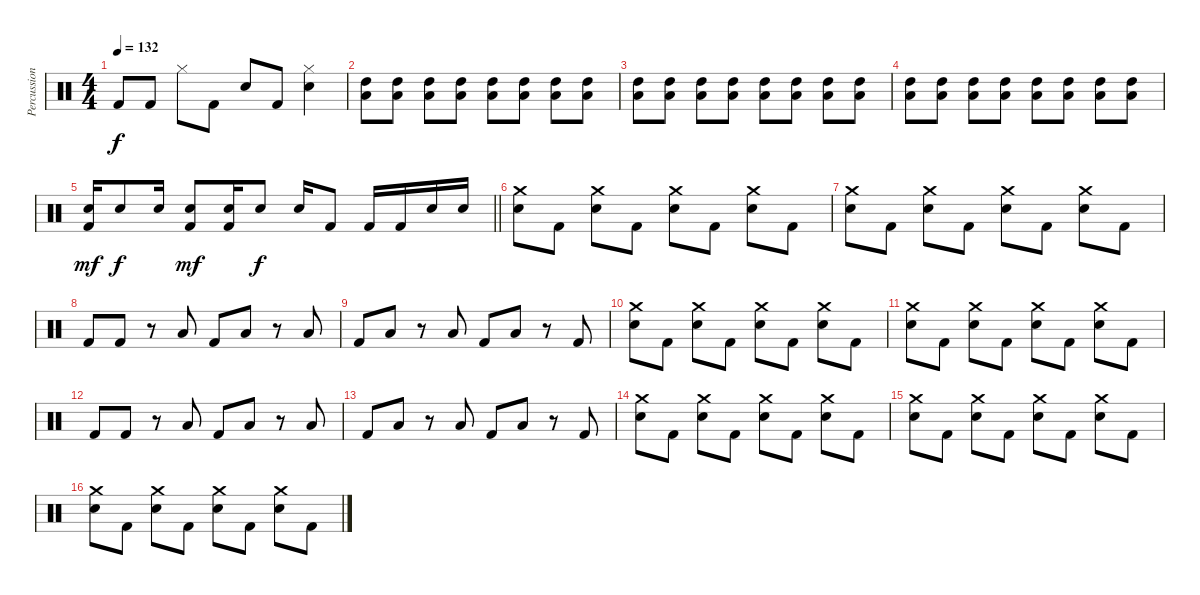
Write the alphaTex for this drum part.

\track ("Percussions" "Percussion") {instrument percussion}
\staff {score}
\articulation defaults
\ts (4 4)
\tempo 132
\clef neutral
\ks c "Kick (hit) 2".8{dy f} "Kick (hit) 2".8 "Hi-Hat (closed)".8 "Kick (hit) 2".8 "Electric Snare (hit)".8 "Kick (hit) 2".8
("Hi-Hat (closed)" "Electric Snare (hit)").4 |
("Low Tom (hit)" "High Tom (hit)").8{volume 0} ("Low Tom (hit)" "High Tom (hit)").8{volume 14} ("Low Tom (hit)" "High Tom (hit)").8 ("Low Tom (hit)" "High Tom (hit)").8 ("Low Tom (hit)" "High Tom (hit)").8 ("Low Tom (hit)" "High Tom (hit)").8 ("Low Tom (hit)" "High Tom (hit)").8 ("Low Tom (hit)" "High Tom (hit)").8 |
("Low Tom (hit)" "High Tom (hit)").8 ("Low Tom (hit)" "High Tom (hit)").8 ("Low Tom (hit)" "High Tom (hit)").8 ("Low Tom (hit)" "High Tom (hit)").8 ("Low Tom (hit)" "High Tom (hit)").8 ("Low Tom (hit)" "High Tom (hit)").8 ("Low Tom (hit)" "High Tom (hit)").8 ("Low Tom (hit)" "High Tom (hit)").8 |
("Low Tom (hit)" "High Tom (hit)").8 ("Low Tom (hit)" "High Tom (hit)").8 ("Low Tom (hit)" "High Tom (hit)").8 ("Low Tom (hit)" "High Tom (hit)").8 ("Low Tom (hit)" "High Tom (hit)").8 ("Low Tom (hit)" "High Tom (hit)").8 ("Low Tom (hit)" "High Tom (hit)").8 ("Low Tom (hit)" "High Tom (hit)").8 |
\barLineRight lightlight
("Kick (hit) 2" "Electric Snare (hit)").16{dy mf} "Electric Snare (hit)".8{dy f} "Electric Snare (hit)".16 ("Kick (hit) 2" "Electric Snare (hit)").8{dy mf} ("Kick (hit) 2" "Electric Snare (hit)").16 "Electric Snare (hit)".8{dy f} "Electric Snare (hit)".16 "Kick (hit) 2".8 "Kick (hit) 2".16 "Kick (hit) 2".16 "Electric Snare (hit)".16 "Electric Snare (hit)".16 |
("Electric Snare (hit)" "Crash medium (hit)").8 "Kick (hit) 2".8 ("Electric Snare (hit)" "Crash medium (hit)").8 "Kick (hit) 2".8 ("Electric Snare (hit)" "Crash medium (hit)").8 "Kick (hit) 2".8 ("Electric Snare (hit)" "Crash medium (hit)").8 "Kick (hit) 2".8 |
("Electric Snare (hit)" "Crash medium (hit)").8 "Kick (hit) 2".8 ("Electric Snare (hit)" "Crash medium (hit)").8 "Kick (hit) 2".8 ("Electric Snare (hit)" "Crash medium (hit)").8 "Kick (hit) 2".8 ("Electric Snare (hit)" "Crash medium (hit)").8 "Kick (hit) 2".8 |
"Kick (hit) 2".8 "Kick (hit) 2".8 r.8 "Low Floor Tom (hit)".8 "Kick (hit) 2".8 "Low Floor Tom (hit)".8 r.8 "Low Floor Tom (hit)".8 |
"Kick (hit) 2".8 "Low Floor Tom (hit)".8 r.8 "Low Floor Tom (hit)".8 "Kick (hit) 2".8 "Low Floor Tom (hit)".8 r.8 "Kick (hit) 2".8 |
("Electric Snare (hit)" "Crash medium (hit)").8 "Kick (hit) 2".8 ("Electric Snare (hit)" "Crash medium (hit)").8 "Kick (hit) 2".8 ("Electric Snare (hit)" "Crash medium (hit)").8 "Kick (hit) 2".8 ("Electric Snare (hit)" "Crash medium (hit)").8 "Kick (hit) 2".8 |
("Electric Snare (hit)" "Crash medium (hit)").8 "Kick (hit) 2".8 ("Electric Snare (hit)" "Crash medium (hit)").8 "Kick (hit) 2".8 ("Electric Snare (hit)" "Crash medium (hit)").8 "Kick (hit) 2".8 ("Electric Snare (hit)" "Crash medium (hit)").8 "Kick (hit) 2".8 |
"Kick (hit) 2".8 "Kick (hit) 2".8 r.8 "Low Floor Tom (hit)".8 "Kick (hit) 2".8 "Low Floor Tom (hit)".8 r.8 "Low Floor Tom (hit)".8 |
"Kick (hit) 2".8 "Low Floor Tom (hit)".8 r.8 "Low Floor Tom (hit)".8 "Kick (hit) 2".8 "Low Floor Tom (hit)".8 r.8 "Kick (hit) 2".8 |
("Electric Snare (hit)" "Crash medium (hit)").8 "Kick (hit) 2".8 ("Electric Snare (hit)" "Crash medium (hit)").8 "Kick (hit) 2".8 ("Electric Snare (hit)" "Crash medium (hit)").8 "Kick (hit) 2".8 ("Electric Snare (hit)" "Crash medium (hit)").8 "Kick (hit) 2".8 |
("Electric Snare (hit)" "Crash medium (hit)").8 "Kick (hit) 2".8 ("Electric Snare (hit)" "Crash medium (hit)").8 "Kick (hit) 2".8 ("Electric Snare (hit)" "Crash medium (hit)").8 "Kick (hit) 2".8 ("Electric Snare (hit)" "Crash medium (hit)").8 "Kick (hit) 2".8 |
("Electric Snare (hit)" "Crash medium (hit)").8 "Kick (hit) 2".8 ("Electric Snare (hit)" "Crash medium (hit)").8 "Kick (hit) 2".8 ("Electric Snare (hit)" "Crash medium (hit)").8 "Kick (hit) 2".8 ("Electric Snare (hit)" "Crash medium (hit)").8 "Kick (hit) 2".8
